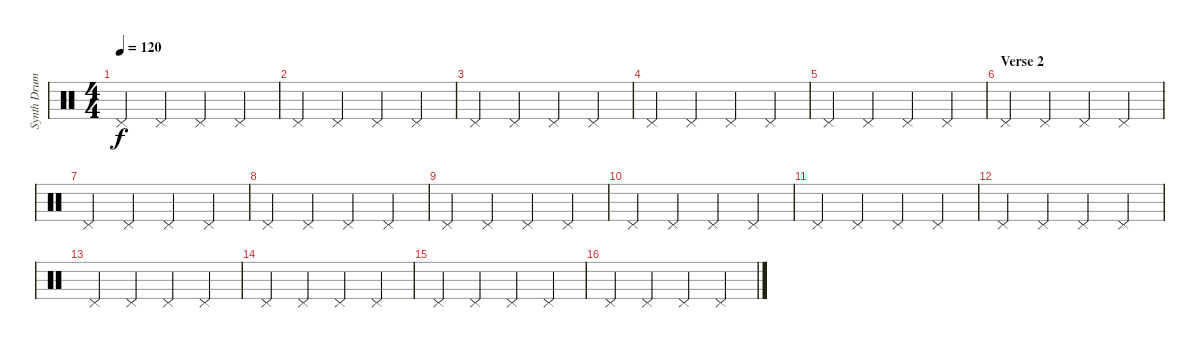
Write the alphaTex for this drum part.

\track ("Synth Drums hihat etc..." "Synth Drum") {instrument percussion}
\staff {score}
\articulation defaults
\ts (4 4)
\tempo 120
\clef neutral
\ks c "Pedal Hi-Hat (hit)".4{dy f} "Pedal Hi-Hat (hit)".4 "Pedal Hi-Hat (hit)".4 "Pedal Hi-Hat (hit)".4
|
"Pedal Hi-Hat (hit)".4 "Pedal Hi-Hat (hit)".4 "Pedal Hi-Hat (hit)".4 "Pedal Hi-Hat (hit)".4 |
"Pedal Hi-Hat (hit)".4 "Pedal Hi-Hat (hit)".4 "Pedal Hi-Hat (hit)".4 "Pedal Hi-Hat (hit)".4 |
"Pedal Hi-Hat (hit)".4 "Pedal Hi-Hat (hit)".4 "Pedal Hi-Hat (hit)".4 "Pedal Hi-Hat (hit)".4 |
"Pedal Hi-Hat (hit)".4 "Pedal Hi-Hat (hit)".4 "Pedal Hi-Hat (hit)".4 "Pedal Hi-Hat (hit)".4 |
\section ("" "Verse 2")
"Pedal Hi-Hat (hit)".4 "Pedal Hi-Hat (hit)".4 "Pedal Hi-Hat (hit)".4 "Pedal Hi-Hat (hit)".4 |
"Pedal Hi-Hat (hit)".4 "Pedal Hi-Hat (hit)".4 "Pedal Hi-Hat (hit)".4 "Pedal Hi-Hat (hit)".4 |
"Pedal Hi-Hat (hit)".4 "Pedal Hi-Hat (hit)".4 "Pedal Hi-Hat (hit)".4 "Pedal Hi-Hat (hit)".4 |
"Pedal Hi-Hat (hit)".4 "Pedal Hi-Hat (hit)".4 "Pedal Hi-Hat (hit)".4 "Pedal Hi-Hat (hit)".4 |
"Pedal Hi-Hat (hit)".4 "Pedal Hi-Hat (hit)".4 "Pedal Hi-Hat (hit)".4 "Pedal Hi-Hat (hit)".4 |
"Pedal Hi-Hat (hit)".4 "Pedal Hi-Hat (hit)".4 "Pedal Hi-Hat (hit)".4 "Pedal Hi-Hat (hit)".4 |
"Pedal Hi-Hat (hit)".4 "Pedal Hi-Hat (hit)".4 "Pedal Hi-Hat (hit)".4 "Pedal Hi-Hat (hit)".4 |
"Pedal Hi-Hat (hit)".4 "Pedal Hi-Hat (hit)".4 "Pedal Hi-Hat (hit)".4 "Pedal Hi-Hat (hit)".4 |
"Pedal Hi-Hat (hit)".4 "Pedal Hi-Hat (hit)".4 "Pedal Hi-Hat (hit)".4 "Pedal Hi-Hat (hit)".4 |
"Pedal Hi-Hat (hit)".4 "Pedal Hi-Hat (hit)".4 "Pedal Hi-Hat (hit)".4 "Pedal Hi-Hat (hit)".4 |
"Pedal Hi-Hat (hit)".4 "Pedal Hi-Hat (hit)".4 "Pedal Hi-Hat (hit)".4 "Pedal Hi-Hat (hit)".4
